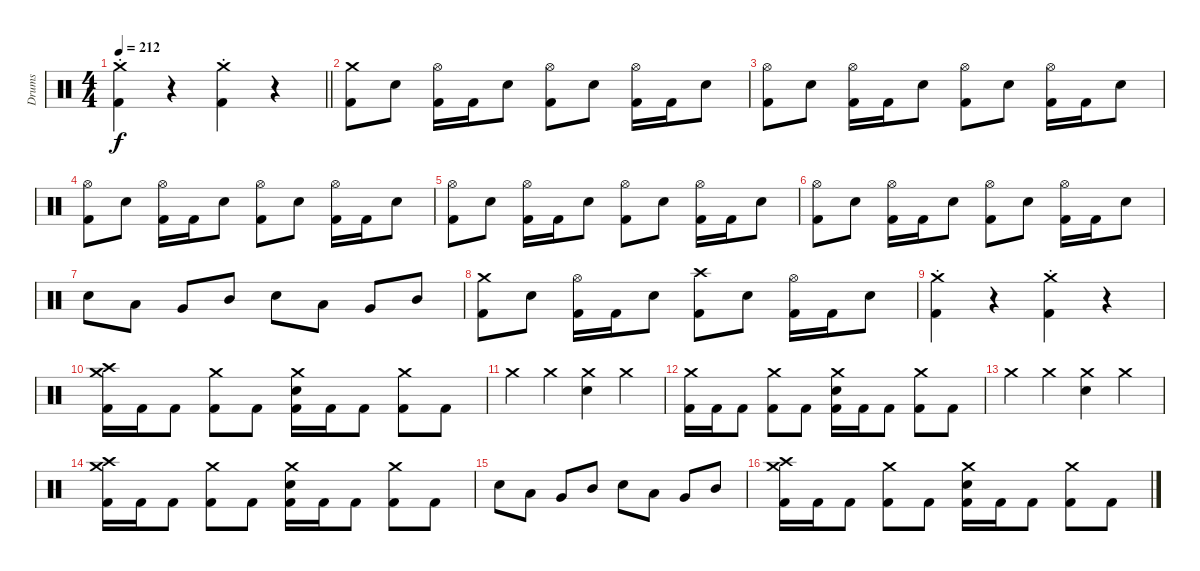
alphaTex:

\track ("Drums" "Drums") {instrument percussion}
\staff {score}
\articulation defaults
\ts (4 4)
\tempo 212
\clef neutral
\barLineRight lightlight
\ks c
("Crash medium (hit)"{st} "Kick (hit) 2").4{dy f} r.4{volume 0} ("Crash medium (hit)"{st} "Kick (hit) 2").4{volume 14} r.4{volume 0} |
("Crash medium (hit)" "Kick (hit) 2").8{volume 14} "Electric Snare (hit)".8 ("Hi-Hat (open)" "Kick (hit) 2").16 "Kick (hit) 2".16 "Electric Snare (hit)".8 ("Hi-Hat (open)" "Kick (hit) 2").8 "Electric Snare (hit)".8 ("Hi-Hat (open)" "Kick (hit) 2").16 "Kick (hit) 2".16 "Electric Snare (hit)".8 |
("Hi-Hat (open)" "Kick (hit) 2").8 "Electric Snare (hit)".8 ("Hi-Hat (open)" "Kick (hit) 2").16 "Kick (hit) 2".16 "Electric Snare (hit)".8 ("Hi-Hat (open)" "Kick (hit) 2").8 "Electric Snare (hit)".8 ("Hi-Hat (open)" "Kick (hit) 2").16 "Kick (hit) 2".16 "Electric Snare (hit)".8 |
("Hi-Hat (open)" "Kick (hit) 2").8 "Electric Snare (hit)".8 ("Hi-Hat (open)" "Kick (hit) 2").16 "Kick (hit) 2".16 "Electric Snare (hit)".8 ("Hi-Hat (open)" "Kick (hit) 2").8 "Electric Snare (hit)".8 ("Hi-Hat (open)" "Kick (hit) 2").16 "Kick (hit) 2".16 "Electric Snare (hit)".8 |
("Hi-Hat (open)" "Kick (hit) 2").8 "Electric Snare (hit)".8 ("Hi-Hat (open)" "Kick (hit) 2").16 "Kick (hit) 2".16 "Electric Snare (hit)".8 ("Hi-Hat (open)" "Kick (hit) 2").8 "Electric Snare (hit)".8 ("Hi-Hat (open)" "Kick (hit) 2").16 "Kick (hit) 2".16 "Electric Snare (hit)".8 |
("Hi-Hat (open)" "Kick (hit) 2").8 "Electric Snare (hit)".8 ("Hi-Hat (open)" "Kick (hit) 2").16 "Kick (hit) 2".16 "Electric Snare (hit)".8 ("Hi-Hat (open)" "Kick (hit) 2").8 "Electric Snare (hit)".8 ("Hi-Hat (open)" "Kick (hit) 2").16 "Kick (hit) 2".16 "Electric Snare (hit)".8 |
"Electric Snare (hit)".8 "Low Tom (hit)".8 "Very Low Tom (hit)".8 "Mid Tom (hit)".8 "Electric Snare (hit)".8 "Low Tom (hit)".8 "Very Low Tom (hit)".8 "Mid Tom (hit)".8 |
("Crash medium (hit)" "Kick (hit) 2").8 "Electric Snare (hit)".8 ("Hi-Hat (open)" "Kick (hit) 2").16 "Kick (hit) 2".16 "Electric Snare (hit)".8 ("Crash high (hit)" "Kick (hit) 2").8 "Electric Snare (hit)".8 ("Hi-Hat (open)" "Kick (hit) 2").16 "Kick (hit) 2".16 "Electric Snare (hit)".8 |
("Crash medium (hit)"{st} "Kick (hit) 2").4 r.4{volume 0} ("Crash medium (hit)"{st} "Kick (hit) 2").4{volume 14} r.4{volume 0} |
("Crash medium (hit)" "Crash high (hit)" "Kick (hit) 2").16{volume 14} "Kick (hit) 2".16 "Kick (hit) 2".8 ("Crash medium (hit)" "Kick (hit) 2").8 "Kick (hit) 2".8 ("Crash medium (hit)" "Electric Snare (hit)" "Kick (hit) 2").16 "Kick (hit) 2".16 "Kick (hit) 2".8 ("Crash medium (hit)" "Kick (hit) 2").8 "Kick (hit) 2".8 |
"Crash medium (hit)".4 "Crash medium (hit)".4 ("Crash medium (hit)" "Electric Snare (hit)").4 "Crash medium (hit)".4 |
("Crash medium (hit)" "Kick (hit) 2").16 "Kick (hit) 2".16 "Kick (hit) 2".8 ("Crash medium (hit)" "Kick (hit) 2").8 "Kick (hit) 2".8 ("Crash medium (hit)" "Electric Snare (hit)" "Kick (hit) 2").16 "Kick (hit) 2".16 "Kick (hit) 2".8 ("Crash medium (hit)" "Kick (hit) 2").8 "Kick (hit) 2".8 |
"Crash medium (hit)".4 "Crash medium (hit)".4 ("Crash medium (hit)" "Electric Snare (hit)").4 "Crash medium (hit)".4 |
("Crash medium (hit)" "Crash high (hit)" "Kick (hit) 2").16 "Kick (hit) 2".16 "Kick (hit) 2".8 ("Crash medium (hit)" "Kick (hit) 2").8 "Kick (hit) 2".8 ("Crash medium (hit)" "Electric Snare (hit)" "Kick (hit) 2").16 "Kick (hit) 2".16 "Kick (hit) 2".8 ("Crash medium (hit)" "Kick (hit) 2").8 "Kick (hit) 2".8 |
"Electric Snare (hit)".8 "Low Tom (hit)".8 "Very Low Tom (hit)".8 "Mid Tom (hit)".8 "Electric Snare (hit)".8 "Low Tom (hit)".8 "Very Low Tom (hit)".8 "Mid Tom (hit)".8 |
("Crash medium (hit)" "Crash high (hit)" "Kick (hit) 2").16 "Kick (hit) 2".16 "Kick (hit) 2".8 ("Crash medium (hit)" "Kick (hit) 2").8 "Kick (hit) 2".8 ("Crash medium (hit)" "Electric Snare (hit)" "Kick (hit) 2").16 "Kick (hit) 2".16 "Kick (hit) 2".8 ("Crash medium (hit)" "Kick (hit) 2").8 "Kick (hit) 2".8
